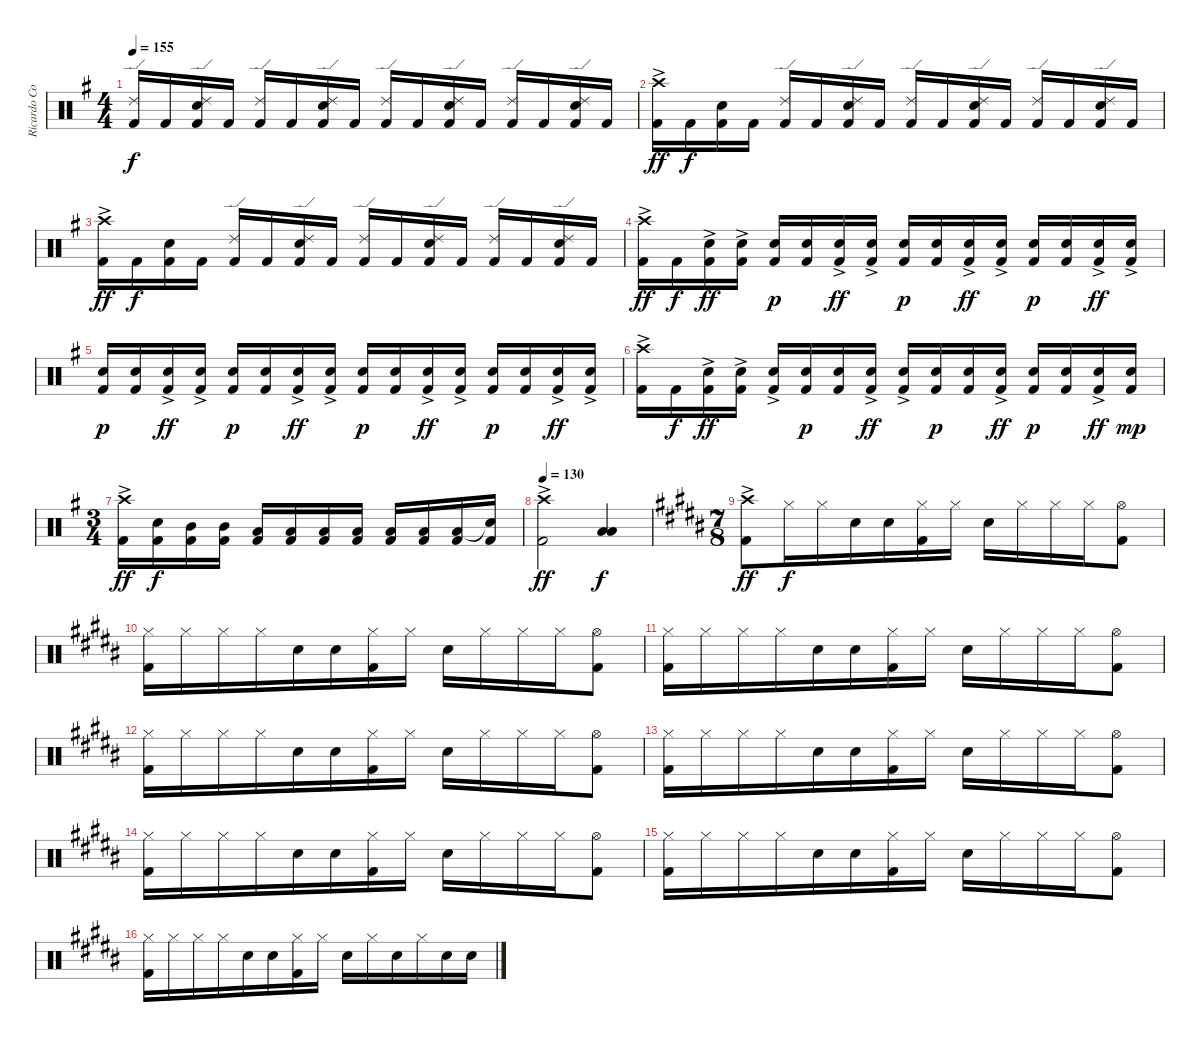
\track ("Ricardo Confessori" "Ricardo Co") {instrument percussion}
\staff {score}
\articulation defaults
\ts (4 4)
\tempo 155
\clef neutral
\ks g
("Ride (edge) 2" "Kick (hit) 2").16{dy f} "Kick (hit) 2".16 ("Kick (hit) 2" "Electric Snare (hit)" "Ride (edge) 2").16 "Kick (hit) 2".16 ("Kick (hit) 2" "Ride (edge) 2").16 "Kick (hit) 2".16 ("Kick (hit) 2" "Ride (edge) 2" "Electric Snare (hit)").16 "Kick (hit) 2".16 ("Kick (hit) 2" "Ride (edge) 2").16 "Kick (hit) 2".16 ("Kick (hit) 2" "Ride (edge) 2" "Electric Snare (hit)").16 "Kick (hit) 2".16 ("Kick (hit) 2" "Ride (edge) 2").16 "Kick (hit) 2".16 ("Kick (hit) 2" "Ride (edge) 2" "Electric Snare (hit)").16 "Kick (hit) 2".16 |
("Crash high (hit)"{ac} "Kick (hit) 2"{ac}).16{dy ff} "Kick (hit) 2".16{dy f} ("Kick (hit) 2" "Electric Snare (hit)").16 "Kick (hit) 2".16 ("Kick (hit) 2" "Ride (edge) 2").16 "Kick (hit) 2".16 ("Kick (hit) 2" "Ride (edge) 2" "Electric Snare (hit)").16 "Kick (hit) 2".16 ("Kick (hit) 2" "Ride (edge) 2").16 "Kick (hit) 2".16 ("Kick (hit) 2" "Ride (edge) 2" "Electric Snare (hit)").16 "Kick (hit) 2".16 ("Kick (hit) 2" "Ride (edge) 2").16 "Kick (hit) 2".16 ("Kick (hit) 2" "Ride (edge) 2" "Electric Snare (hit)").16 "Kick (hit) 2".16 |
("Crash high (hit)"{ac} "Kick (hit) 2"{ac}).16{dy ff} "Kick (hit) 2".16{dy f} ("Kick (hit) 2" "Electric Snare (hit)").16 "Kick (hit) 2".16 ("Kick (hit) 2" "Ride (edge) 2").16 "Kick (hit) 2".16 ("Kick (hit) 2" "Ride (edge) 2" "Electric Snare (hit)").16 "Kick (hit) 2".16 ("Kick (hit) 2" "Ride (edge) 2").16 "Kick (hit) 2".16 ("Kick (hit) 2" "Ride (edge) 2" "Electric Snare (hit)").16 "Kick (hit) 2".16 ("Kick (hit) 2" "Ride (edge) 2").16 "Kick (hit) 2".16 ("Kick (hit) 2" "Ride (edge) 2" "Electric Snare (hit)").16 "Kick (hit) 2".16 |
("Crash high (hit)"{ac} "Kick (hit) 2"{ac}).16{dy ff} "Kick (hit) 2".16{dy f} ("Kick (hit) 2" "Electric Snare (hit)"{ac}).16{dy ff} ("Kick (hit) 2" "Electric Snare (hit)"{ac}).16 ("Kick (hit) 2" "Electric Snare (hit)").16{dy p} ("Kick (hit) 2" "Electric Snare (hit)").16 ("Kick (hit) 2" "Electric Snare (hit)"{ac}).16{dy ff} ("Kick (hit) 2" "Electric Snare (hit)"{ac}).16 ("Kick (hit) 2" "Electric Snare (hit)").16{dy p} ("Kick (hit) 2" "Electric Snare (hit)").16 ("Kick (hit) 2" "Electric Snare (hit)"{ac}).16{dy ff} ("Kick (hit) 2" "Electric Snare (hit)"{ac}).16 ("Kick (hit) 2" "Electric Snare (hit)").16{dy p} ("Kick (hit) 2" "Electric Snare (hit)").16 ("Kick (hit) 2" "Electric Snare (hit)"{ac}).16{dy ff} ("Kick (hit) 2" "Electric Snare (hit)"{ac}).16 |
("Kick (hit) 2" "Electric Snare (hit)").16{dy p} ("Kick (hit) 2" "Electric Snare (hit)").16 ("Kick (hit) 2" "Electric Snare (hit)"{ac}).16{dy ff} ("Kick (hit) 2" "Electric Snare (hit)"{ac}).16 ("Kick (hit) 2" "Electric Snare (hit)").16{dy p} ("Kick (hit) 2" "Electric Snare (hit)").16 ("Kick (hit) 2" "Electric Snare (hit)"{ac}).16{dy ff} ("Kick (hit) 2" "Electric Snare (hit)"{ac}).16 ("Kick (hit) 2" "Electric Snare (hit)").16{dy p} ("Kick (hit) 2" "Electric Snare (hit)").16 ("Kick (hit) 2" "Electric Snare (hit)"{ac}).16{dy ff} ("Kick (hit) 2" "Electric Snare (hit)"{ac}).16 ("Kick (hit) 2" "Electric Snare (hit)").16{dy p} ("Kick (hit) 2" "Electric Snare (hit)").16 ("Kick (hit) 2" "Electric Snare (hit)"{ac}).16{dy ff} ("Kick (hit) 2" "Electric Snare (hit)"{ac}).16 |
("Crash high (hit)"{ac} "Kick (hit) 2"{ac}).16 "Kick (hit) 2".16{dy f} ("Kick (hit) 2" "Electric Snare (hit)"{ac}).16{dy ff} ("Kick (hit) 2" "Electric Snare (hit)"{ac}).16 ("Kick (hit) 2" "Electric Snare (hit)"{ac}).16 ("Kick (hit) 2" "Electric Snare (hit)").16{dy p} ("Kick (hit) 2" "Electric Snare (hit)").16 ("Kick (hit) 2" "Electric Snare (hit)"{ac}).16{dy ff} ("Kick (hit) 2" "Electric Snare (hit)"{ac}).16 ("Kick (hit) 2" "Electric Snare (hit)").16{dy p} ("Kick (hit) 2" "Electric Snare (hit)").16 ("Kick (hit) 2" "Electric Snare (hit)"{ac}).16{dy ff} ("Kick (hit) 2" "Electric Snare (hit)").16{dy p} ("Kick (hit) 2" "Electric Snare (hit)").16 ("Kick (hit) 2" "Electric Snare (hit)"{ac}).16{dy ff} ("Kick (hit) 2" "Electric Snare (hit)").16{dy mp} |
\ts (3 4)
("Kick (hit) 2"{ac} "Crash high (hit)"{ac}).16{dy ff} ("Kick (hit) 2" "Electric Snare (hit)").16{dy f} ("Kick (hit) 2" "Mid Tom (hit)").16 ("Kick (hit) 2" "Mid Tom (hit)").16 ("Kick (hit) 2" "Low Tom (hit)").16 ("Kick (hit) 2" "Low Tom (hit)").16 ("Kick (hit) 2" "Low Tom (hit)").16 ("Kick (hit) 2" "Low Tom (hit)").16 ("Kick (hit) 2" "Low Tom (hit)").16 ("Kick (hit) 2" "Low Tom (hit)").16 ("Kick (hit) 2" "Low Tom (hit)").16 ("Kick (hit) 2" "Snare (hit)"{t}).16 |
\tempo 130
("Crash high (hit)"{ac} "Kick (hit) 2"{ac}).2{dy ff} ("Low Floor Tom (hit)" "Low Tom (hit)").4{dy f} |
\ts (7 8)
\ks b
("Crash high (hit)"{ac} "Kick (hit) 2"{ac}).8{dy ff} "Hi-Hat (closed)".16{dy f} "Hi-Hat (closed)".16 "Electric Snare (hit)".16 "Electric Snare (hit)".16 ("Hi-Hat (closed)" "Kick (hit) 2").16 "Hi-Hat (closed)".16 "Electric Snare (hit)".16 "Hi-Hat (closed)".16 "Hi-Hat (closed)".16 "Hi-Hat (closed)".16 ("Hi-Hat (open)" "Kick (hit) 2").8 |
("Hi-Hat (closed)" "Kick (hit) 2").16 "Hi-Hat (closed)".16 "Hi-Hat (closed)".16 "Hi-Hat (closed)".16 "Electric Snare (hit)".16 "Electric Snare (hit)".16 ("Hi-Hat (closed)" "Kick (hit) 2").16 "Hi-Hat (closed)".16 "Electric Snare (hit)".16 "Hi-Hat (closed)".16 "Hi-Hat (closed)".16 "Hi-Hat (closed)".16 ("Hi-Hat (open)" "Kick (hit) 2").8 |
("Hi-Hat (closed)" "Kick (hit) 2").16 "Hi-Hat (closed)".16 "Hi-Hat (closed)".16 "Hi-Hat (closed)".16 "Electric Snare (hit)".16 "Electric Snare (hit)".16 ("Hi-Hat (closed)" "Kick (hit) 2").16 "Hi-Hat (closed)".16 "Electric Snare (hit)".16 "Hi-Hat (closed)".16 "Hi-Hat (closed)".16 "Hi-Hat (closed)".16 ("Hi-Hat (open)" "Kick (hit) 2").8 |
("Hi-Hat (closed)" "Kick (hit) 2").16 "Hi-Hat (closed)".16 "Hi-Hat (closed)".16 "Hi-Hat (closed)".16 "Electric Snare (hit)".16 "Electric Snare (hit)".16 ("Hi-Hat (closed)" "Kick (hit) 2").16 "Hi-Hat (closed)".16 "Electric Snare (hit)".16 "Hi-Hat (closed)".16 "Hi-Hat (closed)".16 "Hi-Hat (closed)".16 ("Hi-Hat (open)" "Kick (hit) 2").8 |
("Hi-Hat (closed)" "Kick (hit) 2").16 "Hi-Hat (closed)".16 "Hi-Hat (closed)".16 "Hi-Hat (closed)".16 "Electric Snare (hit)".16 "Electric Snare (hit)".16 ("Hi-Hat (closed)" "Kick (hit) 2").16 "Hi-Hat (closed)".16 "Electric Snare (hit)".16 "Hi-Hat (closed)".16 "Hi-Hat (closed)".16 "Hi-Hat (closed)".16 ("Hi-Hat (open)" "Kick (hit) 2").8 |
("Hi-Hat (closed)" "Kick (hit) 2").16 "Hi-Hat (closed)".16 "Hi-Hat (closed)".16 "Hi-Hat (closed)".16 "Electric Snare (hit)".16 "Electric Snare (hit)".16 ("Hi-Hat (closed)" "Kick (hit) 2").16 "Hi-Hat (closed)".16 "Electric Snare (hit)".16 "Hi-Hat (closed)".16 "Hi-Hat (closed)".16 "Hi-Hat (closed)".16 ("Hi-Hat (open)" "Kick (hit) 2").8 |
("Hi-Hat (closed)" "Kick (hit) 2").16 "Hi-Hat (closed)".16 "Hi-Hat (closed)".16 "Hi-Hat (closed)".16 "Electric Snare (hit)".16 "Electric Snare (hit)".16 ("Hi-Hat (closed)" "Kick (hit) 2").16 "Hi-Hat (closed)".16 "Electric Snare (hit)".16 "Hi-Hat (closed)".16 "Hi-Hat (closed)".16 "Hi-Hat (closed)".16 ("Hi-Hat (open)" "Kick (hit) 2").8 |
("Hi-Hat (closed)" "Kick (hit) 2").16 "Hi-Hat (closed)".16 "Hi-Hat (closed)".16 "Hi-Hat (closed)".16 "Electric Snare (hit)".16 "Electric Snare (hit)".16 ("Hi-Hat (closed)" "Kick (hit) 2").16 "Hi-Hat (closed)".16 "Electric Snare (hit)".16 "Hi-Hat (closed)".16 "Electric Snare (hit)".16 "Hi-Hat (closed)".16 "Electric Snare (hit)".16 "Electric Snare (hit)".16
